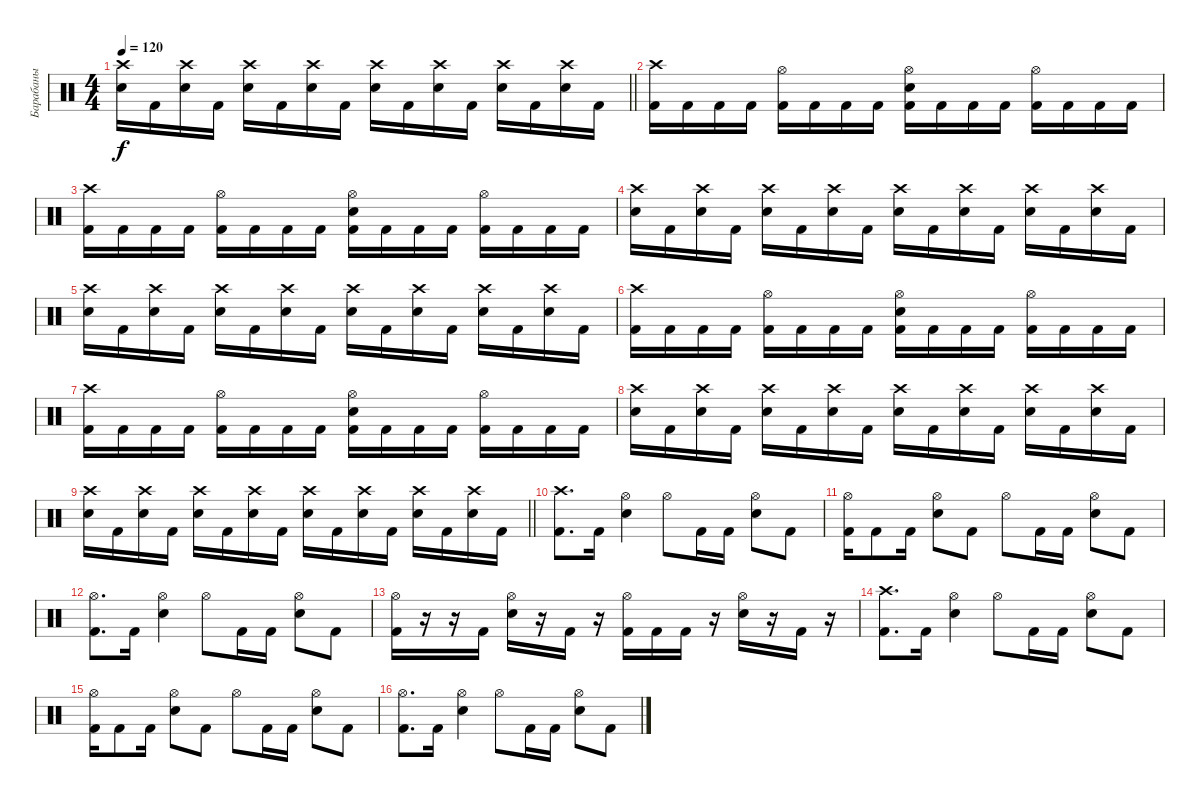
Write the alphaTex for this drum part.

\track ("Барабаны" "Барабаны") {instrument percussion}
\staff {score}
\articulation defaults
\ts (4 4)
\tempo 120
\clef neutral
\barLineRight lightlight
\ks c
("Crash high (hit)" "Electric Snare (hit)").16{dy f} "Kick (hit) 2".16 ("Crash high (hit)" "Electric Snare (hit)").16 "Kick (hit) 2".16 ("Crash high (hit)" "Electric Snare (hit)").16 "Kick (hit) 2".16 ("Crash high (hit)" "Electric Snare (hit)").16 "Kick (hit) 2".16 ("Crash high (hit)" "Electric Snare (hit)").16 "Kick (hit) 2".16 ("Crash high (hit)" "Electric Snare (hit)").16 "Kick (hit) 2".16 ("Crash high (hit)" "Electric Snare (hit)").16 "Kick (hit) 2".16 ("Crash high (hit)" "Electric Snare (hit)").16 "Kick (hit) 2".16 |
\section ("" "")
("Crash high (hit)" "Kick (hit) 2").16 "Kick (hit) 2".16 "Kick (hit) 2".16 "Kick (hit) 2".16 ("Hi-Hat (open)" "Kick (hit) 2").16 "Kick (hit) 2".16 "Kick (hit) 2".16 "Kick (hit) 2".16 ("Hi-Hat (open)" "Electric Snare (hit)" "Kick (hit) 2").16 "Kick (hit) 2".16 "Kick (hit) 2".16 "Kick (hit) 2".16 ("Hi-Hat (open)" "Kick (hit) 2").16 "Kick (hit) 2".16 "Kick (hit) 2".16 "Kick (hit) 2".16 |
("Crash high (hit)" "Kick (hit) 2").16 "Kick (hit) 2".16 "Kick (hit) 2".16 "Kick (hit) 2".16 ("Hi-Hat (open)" "Kick (hit) 2").16 "Kick (hit) 2".16 "Kick (hit) 2".16 "Kick (hit) 2".16 ("Hi-Hat (open)" "Electric Snare (hit)" "Kick (hit) 2").16 "Kick (hit) 2".16 "Kick (hit) 2".16 "Kick (hit) 2".16 ("Hi-Hat (open)" "Kick (hit) 2").16 "Kick (hit) 2".16 "Kick (hit) 2".16 "Kick (hit) 2".16 |
("Crash high (hit)" "Electric Snare (hit)").16 "Kick (hit) 2".16 ("Crash high (hit)" "Electric Snare (hit)").16 "Kick (hit) 2".16 ("Crash high (hit)" "Electric Snare (hit)").16 "Kick (hit) 2".16 ("Crash high (hit)" "Electric Snare (hit)").16 "Kick (hit) 2".16 ("Crash high (hit)" "Electric Snare (hit)").16 "Kick (hit) 2".16 ("Crash high (hit)" "Electric Snare (hit)").16 "Kick (hit) 2".16 ("Crash high (hit)" "Electric Snare (hit)").16 "Kick (hit) 2".16 ("Crash high (hit)" "Electric Snare (hit)").16 "Kick (hit) 2".16 |
("Crash high (hit)" "Electric Snare (hit)").16 "Kick (hit) 2".16 ("Crash high (hit)" "Electric Snare (hit)").16 "Kick (hit) 2".16 ("Crash high (hit)" "Electric Snare (hit)").16 "Kick (hit) 2".16 ("Crash high (hit)" "Electric Snare (hit)").16 "Kick (hit) 2".16 ("Crash high (hit)" "Electric Snare (hit)").16 "Kick (hit) 2".16 ("Crash high (hit)" "Electric Snare (hit)").16 "Kick (hit) 2".16 ("Crash high (hit)" "Electric Snare (hit)").16 "Kick (hit) 2".16 ("Crash high (hit)" "Electric Snare (hit)").16 "Kick (hit) 2".16 |
("Crash high (hit)" "Kick (hit) 2").16 "Kick (hit) 2".16 "Kick (hit) 2".16 "Kick (hit) 2".16 ("Hi-Hat (open)" "Kick (hit) 2").16 "Kick (hit) 2".16 "Kick (hit) 2".16 "Kick (hit) 2".16 ("Hi-Hat (open)" "Electric Snare (hit)" "Kick (hit) 2").16 "Kick (hit) 2".16 "Kick (hit) 2".16 "Kick (hit) 2".16 ("Hi-Hat (open)" "Kick (hit) 2").16 "Kick (hit) 2".16 "Kick (hit) 2".16 "Kick (hit) 2".16 |
("Crash high (hit)" "Kick (hit) 2").16 "Kick (hit) 2".16 "Kick (hit) 2".16 "Kick (hit) 2".16 ("Hi-Hat (open)" "Kick (hit) 2").16 "Kick (hit) 2".16 "Kick (hit) 2".16 "Kick (hit) 2".16 ("Hi-Hat (open)" "Electric Snare (hit)" "Kick (hit) 2").16 "Kick (hit) 2".16 "Kick (hit) 2".16 "Kick (hit) 2".16 ("Hi-Hat (open)" "Kick (hit) 2").16 "Kick (hit) 2".16 "Kick (hit) 2".16 "Kick (hit) 2".16 |
("Crash high (hit)" "Electric Snare (hit)").16 "Kick (hit) 2".16 ("Crash high (hit)" "Electric Snare (hit)").16 "Kick (hit) 2".16 ("Crash high (hit)" "Electric Snare (hit)").16 "Kick (hit) 2".16 ("Crash high (hit)" "Electric Snare (hit)").16 "Kick (hit) 2".16 ("Crash high (hit)" "Electric Snare (hit)").16 "Kick (hit) 2".16 ("Crash high (hit)" "Electric Snare (hit)").16 "Kick (hit) 2".16 ("Crash high (hit)" "Electric Snare (hit)").16 "Kick (hit) 2".16 ("Crash high (hit)" "Electric Snare (hit)").16 "Kick (hit) 2".16 |
\barLineRight lightlight
("Crash high (hit)" "Electric Snare (hit)").16 "Kick (hit) 2".16 ("Crash high (hit)" "Electric Snare (hit)").16 "Kick (hit) 2".16 ("Crash high (hit)" "Electric Snare (hit)").16 "Kick (hit) 2".16 ("Crash high (hit)" "Electric Snare (hit)").16 "Kick (hit) 2".16 ("Crash high (hit)" "Electric Snare (hit)").16 "Kick (hit) 2".16 ("Crash high (hit)" "Electric Snare (hit)").16 "Kick (hit) 2".16 ("Crash high (hit)" "Electric Snare (hit)").16 "Kick (hit) 2".16 ("Crash high (hit)" "Electric Snare (hit)").16 "Kick (hit) 2".16 |
\section ("" "")
("Crash high (hit)" "Kick (hit) 2").8{d} "Kick (hit) 2".16 ("Hi-Hat (open)" "Electric Snare (hit)").4 "Hi-Hat (open)".8 "Kick (hit) 2".16 "Kick (hit) 2".16 ("Hi-Hat (open)" "Electric Snare (hit)").8 "Kick (hit) 2".8 |
("Hi-Hat (open)" "Kick (hit) 2").16 "Kick (hit) 2".8 "Kick (hit) 2".16 ("Hi-Hat (open)" "Electric Snare (hit)").8 "Kick (hit) 2".8 "Hi-Hat (open)".8 "Kick (hit) 2".16 "Kick (hit) 2".16 ("Hi-Hat (open)" "Electric Snare (hit)").8 "Kick (hit) 2".8 |
("Hi-Hat (open)" "Kick (hit) 2").8{d} "Kick (hit) 2".16 ("Hi-Hat (open)" "Electric Snare (hit)").4 "Hi-Hat (open)".8 "Kick (hit) 2".16 "Kick (hit) 2".16 ("Hi-Hat (open)" "Electric Snare (hit)").8 "Kick (hit) 2".8 |
("Hi-Hat (open)" "Kick (hit) 2").16 r.16 r.16 "Kick (hit) 2".16 ("Hi-Hat (open)" "Electric Snare (hit)").16 r.16 "Kick (hit) 2".16 r.16 ("Hi-Hat (open)" "Kick (hit) 2").16 "Kick (hit) 2".16 "Kick (hit) 2".16 r.16 ("Hi-Hat (open)" "Electric Snare (hit)").16 r.16 "Kick (hit) 2".16 r.16 |
("Crash high (hit)" "Kick (hit) 2").8{d} "Kick (hit) 2".16 ("Hi-Hat (open)" "Electric Snare (hit)").4 "Hi-Hat (open)".8 "Kick (hit) 2".16 "Kick (hit) 2".16 ("Hi-Hat (open)" "Electric Snare (hit)").8 "Kick (hit) 2".8 |
("Hi-Hat (open)" "Kick (hit) 2").16 "Kick (hit) 2".8 "Kick (hit) 2".16 ("Hi-Hat (open)" "Electric Snare (hit)").8 "Kick (hit) 2".8 "Hi-Hat (open)".8 "Kick (hit) 2".16 "Kick (hit) 2".16 ("Hi-Hat (open)" "Electric Snare (hit)").8 "Kick (hit) 2".8 |
("Hi-Hat (open)" "Kick (hit) 2").8{d} "Kick (hit) 2".16 ("Hi-Hat (open)" "Electric Snare (hit)").4 "Hi-Hat (open)".8 "Kick (hit) 2".16 "Kick (hit) 2".16 ("Hi-Hat (open)" "Electric Snare (hit)").8 "Kick (hit) 2".8
